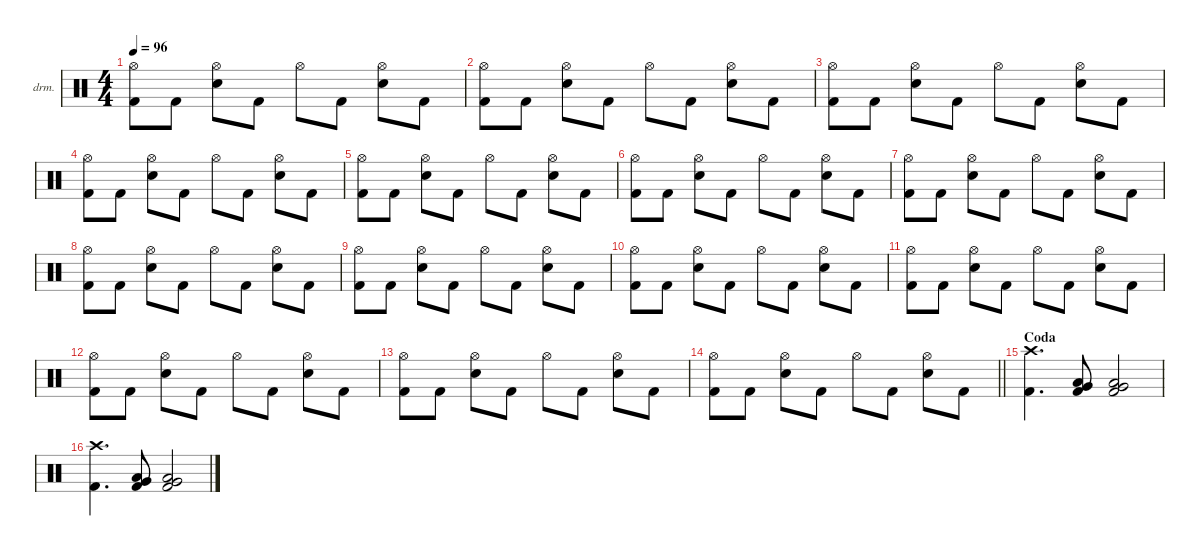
\defaultSystemsLayout 4
\hideDynamics
\bracketExtendMode nobrackets
\firstSystemTrackNameOrientation horizontal
\otherSystemsTrackNameOrientation horizontal
\track ("Drums" "drm.") {instrument percussion}
\staff {score}
\articulation defaults
\ts (4 4)
\tempo 96
\clef neutral
\ks c
("Hi-Hat (open)" "Kick (hit) 2").8{dy f} "Kick (hit) 2".8 ("Hi-Hat (open)" "Snare (hit) 2").8 "Kick (hit) 2".8 "Hi-Hat (open)".8 "Kick (hit) 2".8 ("Hi-Hat (open)" "Snare (hit) 2").8 "Kick (hit) 2".8 |
("Hi-Hat (open)" "Kick (hit) 2").8 "Kick (hit) 2".8 ("Hi-Hat (open)" "Snare (hit) 2").8 "Kick (hit) 2".8 "Hi-Hat (open)".8 "Kick (hit) 2".8 ("Hi-Hat (open)" "Snare (hit) 2").8 "Kick (hit) 2".8 |
("Hi-Hat (open)" "Kick (hit) 2").8 "Kick (hit) 2".8 ("Hi-Hat (open)" "Snare (hit) 2").8 "Kick (hit) 2".8 "Hi-Hat (open)".8 "Kick (hit) 2".8 ("Hi-Hat (open)" "Snare (hit) 2").8 "Kick (hit) 2".8 |
("Hi-Hat (open)" "Kick (hit) 2").8 "Kick (hit) 2".8 ("Hi-Hat (open)" "Snare (hit) 2").8 "Kick (hit) 2".8 "Hi-Hat (open)".8 "Kick (hit) 2".8 ("Hi-Hat (open)" "Snare (hit) 2").8 "Kick (hit) 2".8 |
("Hi-Hat (open)" "Kick (hit) 2").8 "Kick (hit) 2".8 ("Hi-Hat (open)" "Snare (hit) 2").8 "Kick (hit) 2".8 "Hi-Hat (open)".8 "Kick (hit) 2".8 ("Hi-Hat (open)" "Snare (hit) 2").8 "Kick (hit) 2".8 |
("Hi-Hat (open)" "Kick (hit) 2").8 "Kick (hit) 2".8 ("Hi-Hat (open)" "Snare (hit) 2").8 "Kick (hit) 2".8 "Hi-Hat (open)".8 "Kick (hit) 2".8 ("Hi-Hat (open)" "Snare (hit) 2").8 "Kick (hit) 2".8 |
("Hi-Hat (open)" "Kick (hit) 2").8 "Kick (hit) 2".8 ("Hi-Hat (open)" "Snare (hit) 2").8 "Kick (hit) 2".8 "Hi-Hat (open)".8 "Kick (hit) 2".8 ("Hi-Hat (open)" "Snare (hit) 2").8 "Kick (hit) 2".8 |
("Hi-Hat (open)" "Kick (hit) 2").8 "Kick (hit) 2".8 ("Hi-Hat (open)" "Snare (hit) 2").8 "Kick (hit) 2".8 "Hi-Hat (open)".8 "Kick (hit) 2".8 ("Hi-Hat (open)" "Snare (hit) 2").8 "Kick (hit) 2".8 |
("Hi-Hat (open)" "Kick (hit) 2").8 "Kick (hit) 2".8 ("Hi-Hat (open)" "Snare (hit) 2").8 "Kick (hit) 2".8 "Hi-Hat (open)".8 "Kick (hit) 2".8 ("Hi-Hat (open)" "Snare (hit) 2").8 "Kick (hit) 2".8 |
("Hi-Hat (open)" "Kick (hit) 2").8 "Kick (hit) 2".8 ("Hi-Hat (open)" "Snare (hit) 2").8 "Kick (hit) 2".8 "Hi-Hat (open)".8 "Kick (hit) 2".8 ("Hi-Hat (open)" "Snare (hit) 2").8 "Kick (hit) 2".8 |
("Hi-Hat (open)" "Kick (hit) 2").8 "Kick (hit) 2".8 ("Hi-Hat (open)" "Snare (hit) 2").8 "Kick (hit) 2".8 "Hi-Hat (open)".8 "Kick (hit) 2".8 ("Hi-Hat (open)" "Snare (hit) 2").8 "Kick (hit) 2".8 |
("Hi-Hat (open)" "Kick (hit) 2").8 "Kick (hit) 2".8 ("Hi-Hat (open)" "Snare (hit) 2").8 "Kick (hit) 2".8 "Hi-Hat (open)".8 "Kick (hit) 2".8 ("Hi-Hat (open)" "Snare (hit) 2").8 "Kick (hit) 2".8 |
("Hi-Hat (open)" "Kick (hit) 2").8 "Kick (hit) 2".8 ("Hi-Hat (open)" "Snare (hit) 2").8 "Kick (hit) 2".8 "Hi-Hat (open)".8 "Kick (hit) 2".8 ("Hi-Hat (open)" "Snare (hit) 2").8 "Kick (hit) 2".8 |
\barLineRight lightlight
("Hi-Hat (open)" "Kick (hit) 2").8 "Kick (hit) 2".8 ("Hi-Hat (open)" "Snare (hit) 2").8 "Kick (hit) 2".8 "Hi-Hat (open)".8 "Kick (hit) 2".8 ("Hi-Hat (open)" "Snare (hit) 2").8 "Kick (hit) 2".8 |
\section ("" "Coda")
("Crash high (hit)" "Kick (hit) 2").4{d} ("Very Low Tom (hit)" "Low Tom (hit)" "Kick (hit) 2").8 ("Very Low Tom (hit)" "Low Tom (hit)" "Kick (hit) 2").2 |
("Crash high (hit)" "Kick (hit) 2").4{d} ("Very Low Tom (hit)" "Low Tom (hit)" "Kick (hit) 2").8 ("Very Low Tom (hit)" "Low Tom (hit)" "Kick (hit) 2").2
